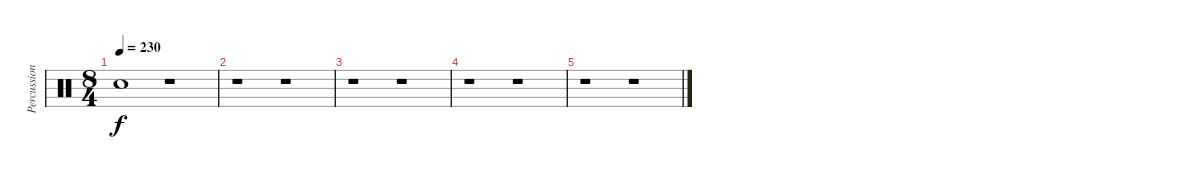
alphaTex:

\track ("Percussions" "Percussion") {instrument percussion}
\staff {score}
\articulation defaults
\ts (8 4)
\tempo 230
\clef neutral
\ks c "Electric Snare (hit)".1{dy f}
r.1 |
r.1 r.1 |
r.1 r.1 |
r.1 r.1 |
r.1 r.1
